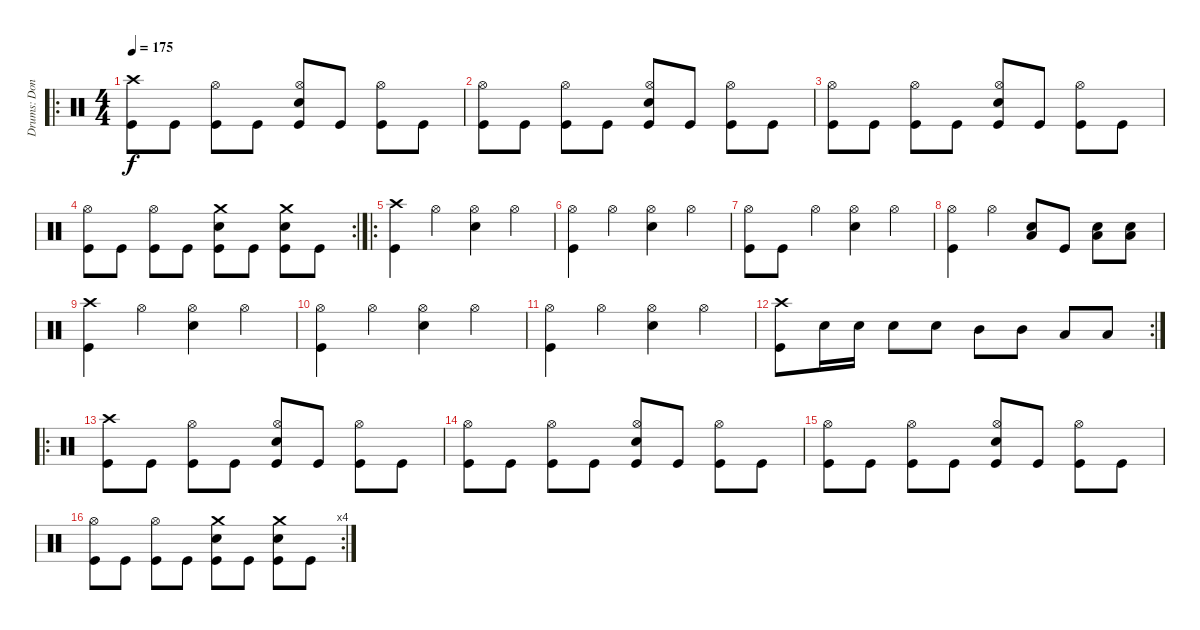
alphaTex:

\track ("Drums: Donald Tardy" "Drums: Don") {instrument percussion}
\staff {score}
\articulation defaults
\ro
\ts (4 4)
\tempo 175
\clef neutral
\ks c
("Crash high (hit)" "Kick (hit)").8{dy f} "Kick (hit)".8 ("Hi-Hat (open)" "Kick (hit)").8 "Kick (hit)".8 ("Hi-Hat (open)" "Snare (hit) 2" "Kick (hit)").8 "Kick (hit)".8 ("Hi-Hat (open)" "Kick (hit)").8 "Kick (hit)".8 |
("Hi-Hat (open)" "Kick (hit)").8 "Kick (hit)".8 ("Hi-Hat (open)" "Kick (hit)").8 "Kick (hit)".8 ("Hi-Hat (open)" "Snare (hit) 2" "Kick (hit)").8 "Kick (hit)".8 ("Hi-Hat (open)" "Kick (hit)").8 "Kick (hit)".8 |
("Hi-Hat (open)" "Kick (hit)").8 "Kick (hit)".8 ("Hi-Hat (open)" "Kick (hit)").8 "Kick (hit)".8 ("Hi-Hat (open)" "Snare (hit) 2" "Kick (hit)").8 "Kick (hit)".8 ("Hi-Hat (open)" "Kick (hit)").8 "Kick (hit)".8 |
\rc 2
("Hi-Hat (open)" "Kick (hit)").8 "Kick (hit)".8 ("Hi-Hat (open)" "Kick (hit)").8 "Kick (hit)".8 ("Crash medium (hit)" "Snare (hit) 2" "Kick (hit)").8 "Kick (hit)".8 ("Crash medium (hit)" "Snare (hit) 2" "Kick (hit)").8 "Kick (hit)".8 |
\ro
("Crash high (hit)" "Kick (hit)").4 "Hi-Hat (open)".4 ("Hi-Hat (open)" "Snare (hit) 2").4 "Hi-Hat (open)".4 |
("Hi-Hat (open)" "Kick (hit)").4 "Hi-Hat (open)".4 ("Hi-Hat (open)" "Snare (hit) 2").4 "Hi-Hat (open)".4 |
("Hi-Hat (open)" "Kick (hit)").8 "Kick (hit)".8 "Hi-Hat (open)".4 ("Hi-Hat (open)" "Snare (hit) 2").4 "Hi-Hat (open)".4 |
("Hi-Hat (open)" "Kick (hit)").4 "Hi-Hat (open)".4 ("Low Floor Tom (hit)" "Snare (hit) 2").8 "Kick (hit)".8 ("Low Floor Tom (hit)" "Snare (hit) 2").8 ("Low Floor Tom (hit)" "Snare (hit) 2").8 |
("Crash high (hit)" "Kick (hit)").4 "Hi-Hat (open)".4 ("Hi-Hat (open)" "Snare (hit) 2").4 "Hi-Hat (open)".4 |
("Hi-Hat (open)" "Kick (hit)").4 "Hi-Hat (open)".4 ("Hi-Hat (open)" "Snare (hit) 2").4 "Hi-Hat (open)".4 |
("Hi-Hat (open)" "Kick (hit)").4 "Hi-Hat (open)".4 ("Hi-Hat (open)" "Snare (hit) 2").4 "Hi-Hat (open)".4 |
\rc 2
("Crash high (hit)" "Kick (hit)").8 "Snare (hit) 2".16 "Snare (hit) 2".16 "Snare (hit) 2".8 "Snare (hit) 2".8 "Mid Tom (hit)".8 "Mid Tom (hit)".8 "Low Tom (hit)".8 "Low Tom (hit)".8 |
\ro
("Crash high (hit)" "Kick (hit)").8 "Kick (hit)".8 ("Hi-Hat (open)" "Kick (hit)").8 "Kick (hit)".8 ("Hi-Hat (open)" "Snare (hit) 2" "Kick (hit)").8 "Kick (hit)".8 ("Hi-Hat (open)" "Kick (hit)").8 "Kick (hit)".8 |
("Hi-Hat (open)" "Kick (hit)").8 "Kick (hit)".8 ("Hi-Hat (open)" "Kick (hit)").8 "Kick (hit)".8 ("Hi-Hat (open)" "Snare (hit) 2" "Kick (hit)").8 "Kick (hit)".8 ("Hi-Hat (open)" "Kick (hit)").8 "Kick (hit)".8 |
("Hi-Hat (open)" "Kick (hit)").8 "Kick (hit)".8 ("Hi-Hat (open)" "Kick (hit)").8 "Kick (hit)".8 ("Hi-Hat (open)" "Snare (hit) 2" "Kick (hit)").8 "Kick (hit)".8 ("Hi-Hat (open)" "Kick (hit)").8 "Kick (hit)".8 |
\rc 4
("Hi-Hat (open)" "Kick (hit)").8 "Kick (hit)".8 ("Hi-Hat (open)" "Kick (hit)").8 "Kick (hit)".8 ("Crash medium (hit)" "Snare (hit) 2" "Kick (hit)").8 "Kick (hit)".8 ("Crash medium (hit)" "Snare (hit) 2" "Kick (hit)").8 "Kick (hit)".8
